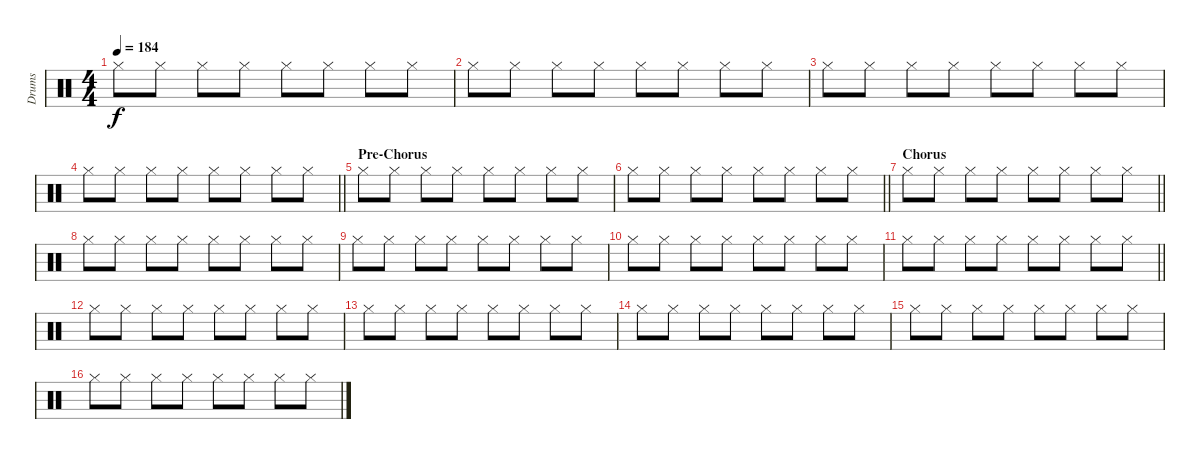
\track ("Drums" "Drums") {instrument percussion}
\staff {score}
\articulation defaults
\ts (4 4)
\tempo 184
\clef neutral
\ks c "Hi-Hat (closed)".8{dy f} "Hi-Hat (closed)".8 "Hi-Hat (closed)".8 "Hi-Hat (closed)".8 "Hi-Hat (closed)".8 "Hi-Hat (closed)".8 "Hi-Hat (closed)".8 "Hi-Hat (closed)".8
|
"Hi-Hat (closed)".8 "Hi-Hat (closed)".8 "Hi-Hat (closed)".8 "Hi-Hat (closed)".8 "Hi-Hat (closed)".8 "Hi-Hat (closed)".8 "Hi-Hat (closed)".8 "Hi-Hat (closed)".8 |
"Hi-Hat (closed)".8 "Hi-Hat (closed)".8 "Hi-Hat (closed)".8 "Hi-Hat (closed)".8 "Hi-Hat (closed)".8 "Hi-Hat (closed)".8 "Hi-Hat (closed)".8 "Hi-Hat (closed)".8 |
\barLineRight lightlight "Hi-Hat (closed)".8 "Hi-Hat (closed)".8 "Hi-Hat (closed)".8 "Hi-Hat (closed)".8 "Hi-Hat (closed)".8 "Hi-Hat (closed)".8 "Hi-Hat (closed)".8 "Hi-Hat (closed)".8
|
\section ("" "Pre-Chorus")
"Hi-Hat (closed)".8 "Hi-Hat (closed)".8 "Hi-Hat (closed)".8 "Hi-Hat (closed)".8 "Hi-Hat (closed)".8 "Hi-Hat (closed)".8 "Hi-Hat (closed)".8 "Hi-Hat (closed)".8 |
\barLineRight lightlight "Hi-Hat (closed)".8 "Hi-Hat (closed)".8 "Hi-Hat (closed)".8 "Hi-Hat (closed)".8 "Hi-Hat (closed)".8 "Hi-Hat (closed)".8 "Hi-Hat (closed)".8 "Hi-Hat (closed)".8
|
\section ("" "Chorus")
\barLineRight lightlight "Hi-Hat (closed)".8 "Hi-Hat (closed)".8 "Hi-Hat (closed)".8 "Hi-Hat (closed)".8 "Hi-Hat (closed)".8 "Hi-Hat (closed)".8 "Hi-Hat (closed)".8 "Hi-Hat (closed)".8
|
"Hi-Hat (closed)".8 "Hi-Hat (closed)".8 "Hi-Hat (closed)".8 "Hi-Hat (closed)".8 "Hi-Hat (closed)".8 "Hi-Hat (closed)".8 "Hi-Hat (closed)".8 "Hi-Hat (closed)".8 |
"Hi-Hat (closed)".8 "Hi-Hat (closed)".8 "Hi-Hat (closed)".8 "Hi-Hat (closed)".8 "Hi-Hat (closed)".8 "Hi-Hat (closed)".8 "Hi-Hat (closed)".8 "Hi-Hat (closed)".8 |
"Hi-Hat (closed)".8 "Hi-Hat (closed)".8 "Hi-Hat (closed)".8 "Hi-Hat (closed)".8 "Hi-Hat (closed)".8 "Hi-Hat (closed)".8 "Hi-Hat (closed)".8 "Hi-Hat (closed)".8 |
\barLineRight lightlight "Hi-Hat (closed)".8 "Hi-Hat (closed)".8 "Hi-Hat (closed)".8 "Hi-Hat (closed)".8 "Hi-Hat (closed)".8 "Hi-Hat (closed)".8 "Hi-Hat (closed)".8 "Hi-Hat (closed)".8
|
"Hi-Hat (closed)".8 "Hi-Hat (closed)".8 "Hi-Hat (closed)".8 "Hi-Hat (closed)".8 "Hi-Hat (closed)".8 "Hi-Hat (closed)".8 "Hi-Hat (closed)".8 "Hi-Hat (closed)".8 |
"Hi-Hat (closed)".8 "Hi-Hat (closed)".8 "Hi-Hat (closed)".8 "Hi-Hat (closed)".8 "Hi-Hat (closed)".8 "Hi-Hat (closed)".8 "Hi-Hat (closed)".8 "Hi-Hat (closed)".8 |
"Hi-Hat (closed)".8 "Hi-Hat (closed)".8 "Hi-Hat (closed)".8 "Hi-Hat (closed)".8 "Hi-Hat (closed)".8 "Hi-Hat (closed)".8 "Hi-Hat (closed)".8 "Hi-Hat (closed)".8 |
"Hi-Hat (closed)".8 "Hi-Hat (closed)".8 "Hi-Hat (closed)".8 "Hi-Hat (closed)".8 "Hi-Hat (closed)".8 "Hi-Hat (closed)".8 "Hi-Hat (closed)".8 "Hi-Hat (closed)".8 |
"Hi-Hat (closed)".8 "Hi-Hat (closed)".8 "Hi-Hat (closed)".8 "Hi-Hat (closed)".8 "Hi-Hat (closed)".8 "Hi-Hat (closed)".8 "Hi-Hat (closed)".8 "Hi-Hat (closed)".8
